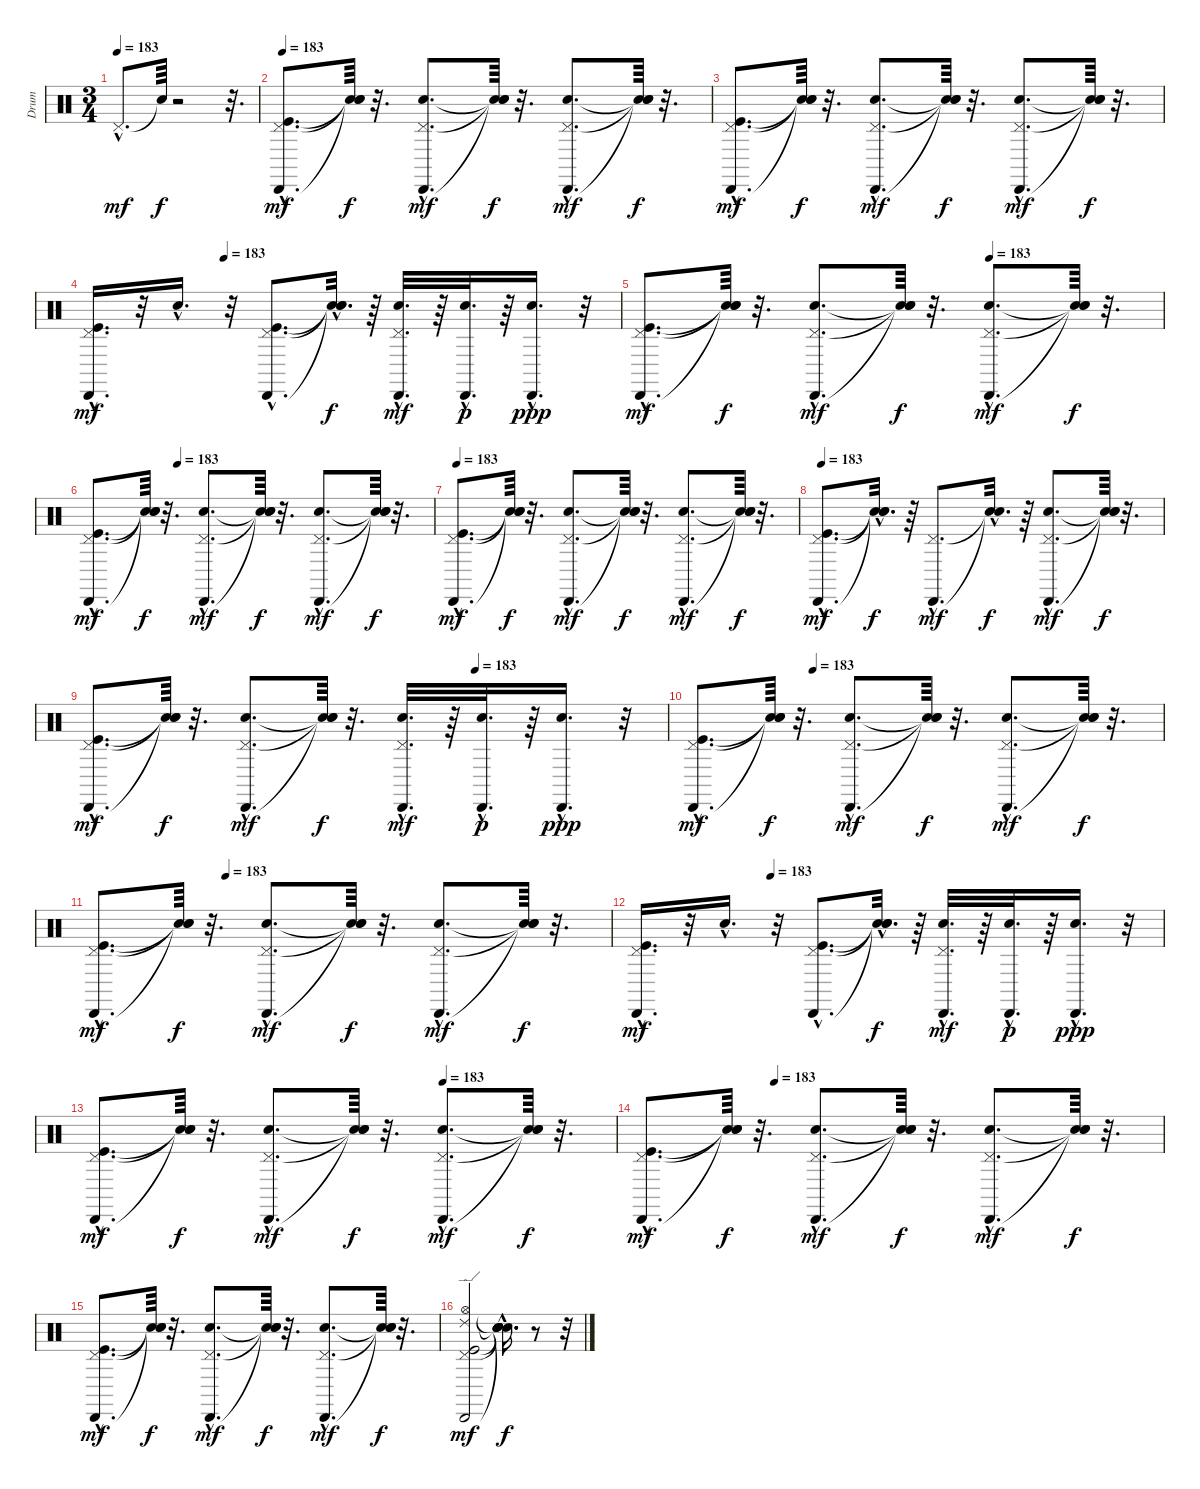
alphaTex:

\track ("Drum" "Drum") {instrument percussion}
\staff {score}
\articulation defaults
\ts (3 4)
\tempo 183
\clef neutral
\ks c "Pedal Hi-Hat (hit)"{hac}.8{d dy mf} "Snare (hit)"{t}.64{dy f}
r.2 r.32{d} |
\tempo 183
("Pedal Hi-Hat (hit)"{hac} "Cabasa (hit)"{hac} "Kick (hit)"{hac}).8{d dy mf} ("Snare (hit)"{t} "Snare (hit)"{t} "Snare (hit)"{t}).64{dy f} r.32{d} ("Pedal Hi-Hat (hit)"{hac} "Cabasa (hit)"{hac} "Electric Snare (hit)"{hac}).8{d dy mf} ("Snare (hit)"{t} "Snare (hit)"{t} "Snare (hit)"{t}).64{dy f} r.32{d} ("Pedal Hi-Hat (hit)"{hac} "Cabasa (hit)"{hac} "Electric Snare (hit)"{hac}).8{d dy mf} ("Snare (hit)"{t} "Snare (hit)"{t} "Snare (hit)"{t}).64{dy f} r.32{d} |
("Kick (hit)"{hac} "Pedal Hi-Hat (hit)"{hac} "Cabasa (hit)"{hac}).8{d dy mf} ("Snare (hit)"{t} "Snare (hit)"{t} "Snare (hit)"{t}).64{dy f} r.32{d} ("Electric Snare (hit)"{hac} "Pedal Hi-Hat (hit)"{hac} "Cabasa (hit)"{hac}).8{d dy mf} ("Snare (hit)"{t} "Snare (hit)"{t} "Snare (hit)"{t}).64{dy f} r.32{d} ("Electric Snare (hit)"{hac} "Pedal Hi-Hat (hit)"{hac} "Cabasa (hit)"{hac}).8{d dy mf} ("Snare (hit)"{t} "Snare (hit)"{t} "Snare (hit)"{t}).64{dy f} r.32{d} |
\tempo (183 0.25)
("Kick (hit)"{hac} "Pedal Hi-Hat (hit)"{hac} "Cabasa (hit)"{hac}).16{d dy mf} r.32 "Electric Snare (hit)"{hac}.16{d} r.32 ("Pedal Hi-Hat (hit)"{hac} "Cabasa (hit)"{hac} "Kick (hit)"{hac}).8{d} ("Snare (hit)"{hac t} "Snare (hit)"{hac t} "Snare (hit)"{hac t}).32{d dy f} r.64 ("Electric Snare (hit)"{hac} "Cabasa (hit)"{hac} "Pedal Hi-Hat (hit)"{hac}).32{d dy mf} r.64 ("Electric Snare (hit)"{hac} "Cabasa (hit)"{hac}).32{d dy p} r.64 ("Electric Snare (hit)"{hac} "Cabasa (hit)"{hac}).16{d dy ppp} r.32 |
\tempo (183 0.6666666666666666)
("Kick (hit)"{hac} "Pedal Hi-Hat (hit)"{hac} "Cabasa (hit)"{hac}).8{d dy mf} ("Snare (hit)"{t} "Snare (hit)"{t} "Snare (hit)"{t}).64{dy f} r.32{d} ("Electric Snare (hit)"{hac} "Pedal Hi-Hat (hit)"{hac} "Cabasa (hit)"{hac}).8{d dy mf} ("Snare (hit)"{t} "Snare (hit)"{t} "Snare (hit)"{t}).64{dy f} r.32{d} ("Electric Snare (hit)"{hac} "Pedal Hi-Hat (hit)"{hac} "Cabasa (hit)"{hac}).8{d dy mf} ("Snare (hit)"{t} "Snare (hit)"{t} "Snare (hit)"{t}).64{dy f} r.32{d} |
\tempo (183 0.25)
("Cabasa (hit)"{hac} "Pedal Hi-Hat (hit)"{hac} "Kick (hit)"{hac}).8{d dy mf} ("Snare (hit)"{t} "Snare (hit)"{t} "Snare (hit)"{t}).64{dy f} r.32{d} ("Cabasa (hit)"{hac} "Pedal Hi-Hat (hit)"{hac} "Electric Snare (hit)"{hac}).8{d dy mf} ("Snare (hit)"{t} "Snare (hit)"{t} "Snare (hit)"{t}).64{dy f} r.32{d} ("Cabasa (hit)"{hac} "Pedal Hi-Hat (hit)"{hac} "Electric Snare (hit)"{hac}).8{d dy mf} ("Snare (hit)"{t} "Snare (hit)"{t} "Snare (hit)"{t}).64{dy f} r.32{d} |
\tempo 183
("Cabasa (hit)"{hac} "Pedal Hi-Hat (hit)"{hac} "Kick (hit)"{hac}).8{d dy mf} ("Snare (hit)"{t} "Snare (hit)"{t} "Snare (hit)"{t}).64{dy f} r.32{d} ("Cabasa (hit)"{hac} "Pedal Hi-Hat (hit)"{hac} "Electric Snare (hit)"{hac}).8{d dy mf} ("Snare (hit)"{t} "Snare (hit)"{t} "Snare (hit)"{t}).64{dy f} r.32{d} ("Cabasa (hit)"{hac} "Pedal Hi-Hat (hit)"{hac} "Electric Snare (hit)"{hac}).8{d dy mf} ("Snare (hit)"{t} "Snare (hit)"{t} "Snare (hit)"{t}).64{dy f} r.32{d} |
\tempo 183
("Cabasa (hit)"{hac} "Kick (hit)"{hac} "Pedal Hi-Hat (hit)"{hac}).8{d dy mf} ("Snare (hit)"{hac t} "Snare (hit)"{hac t} "Snare (hit)"{hac t}).32{d dy f} r.64 ("Pedal Hi-Hat (hit)"{hac} "Cabasa (hit)"{hac}).8{d dy mf} ("Snare (hit)"{hac t} "Snare (hit)"{hac t}).32{d dy f} r.64 ("Pedal Hi-Hat (hit)"{hac} "Electric Snare (hit)"{hac} "Cabasa (hit)"{hac}).8{d dy mf} ("Snare (hit)"{t} "Snare (hit)"{t} "Snare (hit)"{t}).64{dy f} r.32{d} |
\tempo (183 0.6666666666666666)
("Cabasa (hit)"{hac} "Pedal Hi-Hat (hit)"{hac} "Kick (hit)"{hac}).8{d dy mf} ("Snare (hit)"{t} "Snare (hit)"{t} "Snare (hit)"{t}).64{dy f} r.32{d} ("Cabasa (hit)"{hac} "Pedal Hi-Hat (hit)"{hac} "Electric Snare (hit)"{hac}).8{d dy mf} ("Snare (hit)"{t} "Snare (hit)"{t} "Snare (hit)"{t}).64{dy f} r.32{d} ("Pedal Hi-Hat (hit)"{hac} "Cabasa (hit)"{hac} "Electric Snare (hit)"{hac}).32{d dy mf} r.64 ("Cabasa (hit)"{hac} "Electric Snare (hit)"{hac}).32{d dy p} r.64 ("Cabasa (hit)"{hac} "Electric Snare (hit)"{hac}).16{d dy ppp} r.32 |
\tempo (183 0.25)
("Kick (hit)"{hac} "Cabasa (hit)"{hac} "Pedal Hi-Hat (hit)"{hac}).8{d dy mf} ("Snare (hit)"{t} "Snare (hit)"{t} "Snare (hit)"{t}).64{dy f} r.32{d} ("Electric Snare (hit)"{hac} "Cabasa (hit)"{hac} "Pedal Hi-Hat (hit)"{hac}).8{d dy mf} ("Snare (hit)"{t} "Snare (hit)"{t} "Snare (hit)"{t}).64{dy f} r.32{d} ("Electric Snare (hit)"{hac} "Cabasa (hit)"{hac} "Pedal Hi-Hat (hit)"{hac}).8{d dy mf} ("Snare (hit)"{t} "Snare (hit)"{t} "Snare (hit)"{t}).64{dy f} r.32{d} |
\tempo (183 0.25)
("Cabasa (hit)"{hac} "Pedal Hi-Hat (hit)"{hac} "Kick (hit)"{hac}).8{d dy mf} ("Snare (hit)"{t} "Snare (hit)"{t} "Snare (hit)"{t}).64{dy f} r.32{d} ("Cabasa (hit)"{hac} "Pedal Hi-Hat (hit)"{hac} "Electric Snare (hit)"{hac}).8{d dy mf} ("Snare (hit)"{t} "Snare (hit)"{t} "Snare (hit)"{t}).64{dy f} r.32{d} ("Cabasa (hit)"{hac} "Pedal Hi-Hat (hit)"{hac} "Electric Snare (hit)"{hac}).8{d dy mf} ("Snare (hit)"{t} "Snare (hit)"{t} "Snare (hit)"{t}).64{dy f} r.32{d} |
\tempo (183 0.25)
("Cabasa (hit)"{hac} "Pedal Hi-Hat (hit)"{hac} "Kick (hit)"{hac}).16{d dy mf} r.32 "Electric Snare (hit)"{hac}.16{d} r.32 ("Kick (hit)"{hac} "Cabasa (hit)"{hac} "Pedal Hi-Hat (hit)"{hac}).8{d} ("Snare (hit)"{hac t} "Snare (hit)"{hac t} "Snare (hit)"{hac t}).32{d dy f} r.64 ("Pedal Hi-Hat (hit)"{hac} "Cabasa (hit)"{hac} "Electric Snare (hit)"{hac}).32{d dy mf} r.64 ("Cabasa (hit)"{hac} "Electric Snare (hit)"{hac}).32{d dy p} r.64 ("Cabasa (hit)"{hac} "Electric Snare (hit)"{hac}).16{d dy ppp} r.32 |
\tempo (183 0.6666666666666666)
("Cabasa (hit)"{hac} "Pedal Hi-Hat (hit)"{hac} "Kick (hit)"{hac}).8{d dy mf} ("Snare (hit)"{t} "Snare (hit)"{t} "Snare (hit)"{t}).64{dy f} r.32{d} ("Cabasa (hit)"{hac} "Pedal Hi-Hat (hit)"{hac} "Electric Snare (hit)"{hac}).8{d dy mf} ("Snare (hit)"{t} "Snare (hit)"{t} "Snare (hit)"{t}).64{dy f} r.32{d} ("Cabasa (hit)"{hac} "Pedal Hi-Hat (hit)"{hac} "Electric Snare (hit)"{hac}).8{d dy mf} ("Snare (hit)"{t} "Snare (hit)"{t} "Snare (hit)"{t}).64{dy f} r.32{d} |
\tempo (183 0.25)
("Kick (hit)"{hac} "Cabasa (hit)"{hac} "Pedal Hi-Hat (hit)"{hac}).8{d dy mf} ("Snare (hit)"{t} "Snare (hit)"{t} "Snare (hit)"{t}).64{dy f} r.32{d} ("Electric Snare (hit)"{hac} "Cabasa (hit)"{hac} "Pedal Hi-Hat (hit)"{hac}).8{d dy mf} ("Snare (hit)"{t} "Snare (hit)"{t} "Snare (hit)"{t}).64{dy f} r.32{d} ("Electric Snare (hit)"{hac} "Cabasa (hit)"{hac} "Pedal Hi-Hat (hit)"{hac}).8{d dy mf} ("Snare (hit)"{t} "Snare (hit)"{t} "Snare (hit)"{t}).64{dy f} r.32{d} |
("Pedal Hi-Hat (hit)"{hac} "Cabasa (hit)"{hac} "Kick (hit)"{hac}).8{d dy mf} ("Snare (hit)"{t} "Snare (hit)"{t} "Snare (hit)"{t}).64{dy f} r.32{d} ("Pedal Hi-Hat (hit)"{hac} "Cabasa (hit)"{hac} "Snare (hit) 2"{hac}).8{d dy mf} ("Snare (hit)"{t} "Snare (hit)"{t} "Snare (hit)"{t}).64{dy f} r.32{d} ("Pedal Hi-Hat (hit)"{hac} "Cabasa (hit)"{hac} "Electric Snare (hit)"{hac}).8{d dy mf} ("Snare (hit)"{t} "Snare (hit)"{t} "Snare (hit)"{t}).64{dy f} r.32{d} |
("Cabasa (hit)" "Hi-Hat (open)" "Ride (edge) 2" "Pedal Hi-Hat (hit)" "Kick (hit)").2{dy mf} ("Snare (hit)"{hac t} "Snare (hit)"{hac t} "Snare (hit)"{hac t} "Snare (hit)"{hac t} "Snare (hit)"{hac t}).16{d dy f} r.8 r.32
